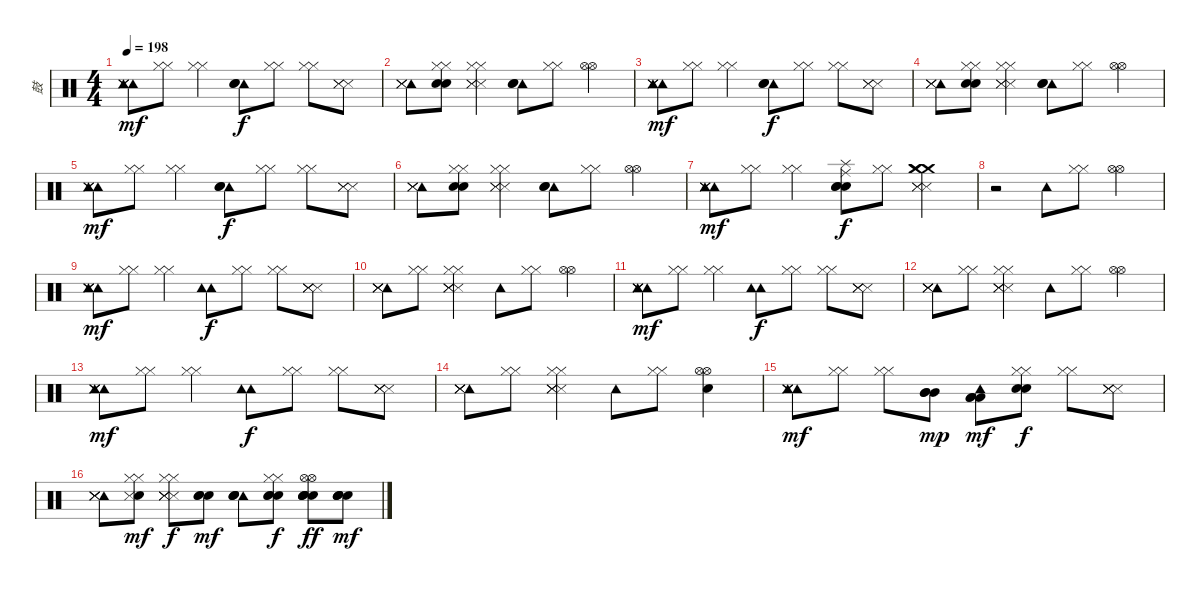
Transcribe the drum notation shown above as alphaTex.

\track ("鼓" "鼓") {instrument percussion}
\staff {score}
\articulation defaults
\ts (4 4)
\tempo 198
\clef neutral
\ks c
("Tambourine (hit)" "Tambourine (hit)" "Metronome (hit)" "Metronome (hit)" "Metronome (hit)").8{dy mf} ("Hi-Hat (closed)" "Hi-Hat (closed)").8 ("Hi-Hat (closed)" "Hi-Hat (closed)").4 ("Tambourine (hit)" "Metronome (bell)" "Metronome (bell)").8{dy f} ("Hi-Hat (closed)" "Hi-Hat (closed)").8 ("Hi-Hat (closed)" "Hi-Hat (closed)").8 ("Metronome (hit)" "Metronome (hit)" "Metronome (hit)").8 |
("Tambourine (hit)" "Metronome (hit)" "Metronome (hit)" "Metronome (hit)").8 ("Hi-Hat (closed)" "Hi-Hat (closed)" "Metronome (bell)" "Metronome (bell)").8 ("Hi-Hat (closed)" "Hi-Hat (closed)" "Metronome (hit)" "Metronome (hit)" "Metronome (hit)").4 ("Tambourine (hit)" "Metronome (bell)" "Metronome (bell)").8 ("Hi-Hat (closed)" "Hi-Hat (closed)").8 ("Hi-Hat (open)" "Hi-Hat (open)").4 |
("Tambourine (hit)" "Tambourine (hit)" "Metronome (hit)" "Metronome (hit)" "Metronome (hit)").8{dy mf} ("Hi-Hat (closed)" "Hi-Hat (closed)").8 ("Hi-Hat (closed)" "Hi-Hat (closed)").4 ("Tambourine (hit)" "Metronome (bell)" "Metronome (bell)").8{dy f} ("Hi-Hat (closed)" "Hi-Hat (closed)").8 ("Hi-Hat (closed)" "Hi-Hat (closed)").8 ("Metronome (hit)" "Metronome (hit)" "Metronome (hit)").8 |
("Tambourine (hit)" "Metronome (hit)" "Metronome (hit)" "Metronome (hit)").8 ("Hi-Hat (closed)" "Hi-Hat (closed)" "Metronome (bell)" "Metronome (bell)").8 ("Hi-Hat (closed)" "Hi-Hat (closed)" "Metronome (hit)" "Metronome (hit)" "Metronome (hit)").4 ("Tambourine (hit)" "Metronome (bell)" "Metronome (bell)").8 ("Hi-Hat (closed)" "Hi-Hat (closed)").8 ("Hi-Hat (open)" "Hi-Hat (open)").4 |
("Tambourine (hit)" "Tambourine (hit)" "Metronome (hit)" "Metronome (hit)" "Metronome (hit)").8{dy mf} ("Hi-Hat (closed)" "Hi-Hat (closed)").8 ("Hi-Hat (closed)" "Hi-Hat (closed)").4 ("Tambourine (hit)" "Metronome (bell)" "Metronome (bell)").8{dy f} ("Hi-Hat (closed)" "Hi-Hat (closed)").8 ("Hi-Hat (closed)" "Hi-Hat (closed)").8 ("Metronome (hit)" "Metronome (hit)" "Metronome (hit)").8 |
("Tambourine (hit)" "Metronome (hit)" "Metronome (hit)" "Metronome (hit)").8 ("Hi-Hat (closed)" "Hi-Hat (closed)" "Metronome (bell)" "Metronome (bell)").8 ("Hi-Hat (closed)" "Hi-Hat (closed)" "Metronome (hit)" "Metronome (hit)" "Metronome (hit)").4 ("Tambourine (hit)" "Metronome (bell)" "Metronome (bell)").8 ("Hi-Hat (closed)" "Hi-Hat (closed)").8 ("Hi-Hat (open)" "Hi-Hat (open)").4 |
("Tambourine (hit)" "Tambourine (hit)" "Metronome (hit)" "Metronome (hit)" "Metronome (hit)").8{dy mf} ("Hi-Hat (closed)" "Hi-Hat (closed)").8 ("Hi-Hat (closed)" "Hi-Hat (closed)").4 ("Ride (middle)" "Splash (hit)" "Metronome (bell)" "Metronome (bell)" "Metronome (bell)").8{dy f} ("Hi-Hat (closed)" "Hi-Hat (closed)").8 ("Crash medium (hit)" "Metronome (hit)" "Metronome (hit)" "Metronome (hit)" "Crash medium (hit)" "Crash medium (hit)").4 |
r.2 "Tambourine (hit)".8 ("Hi-Hat (closed)" "Hi-Hat (closed)").8 ("Hi-Hat (open)" "Hi-Hat (open)").4 |
("Tambourine (hit)" "Tambourine (hit)" "Metronome (hit)" "Metronome (hit)" "Metronome (hit)" "Metronome (hit)").8{dy mf} ("Hi-Hat (closed)" "Hi-Hat (closed)").8 ("Hi-Hat (closed)" "Hi-Hat (closed)").4 ("Tambourine (hit)" "Tambourine (hit)").8{dy f} ("Hi-Hat (closed)" "Hi-Hat (closed)").8 ("Hi-Hat (closed)" "Hi-Hat (closed)").8 ("Metronome (hit)" "Metronome (hit)" "Metronome (hit)" "Metronome (hit)").8 |
("Tambourine (hit)" "Metronome (hit)" "Metronome (hit)" "Metronome (hit)" "Metronome (hit)").8 ("Hi-Hat (closed)" "Hi-Hat (closed)").8 ("Hi-Hat (closed)" "Hi-Hat (closed)" "Metronome (hit)" "Metronome (hit)" "Metronome (hit)" "Metronome (hit)").4 "Tambourine (hit)".8 ("Hi-Hat (closed)" "Hi-Hat (closed)").8 ("Hi-Hat (open)" "Hi-Hat (open)").4 |
("Tambourine (hit)" "Tambourine (hit)" "Metronome (hit)" "Metronome (hit)" "Metronome (hit)" "Metronome (hit)").8{dy mf} ("Hi-Hat (closed)" "Hi-Hat (closed)").8 ("Hi-Hat (closed)" "Hi-Hat (closed)").4 ("Tambourine (hit)" "Tambourine (hit)").8{dy f} ("Hi-Hat (closed)" "Hi-Hat (closed)").8 ("Hi-Hat (closed)" "Hi-Hat (closed)").8 ("Metronome (hit)" "Metronome (hit)" "Metronome (hit)" "Metronome (hit)").8 |
("Tambourine (hit)" "Metronome (hit)" "Metronome (hit)" "Metronome (hit)" "Metronome (hit)").8 ("Hi-Hat (closed)" "Hi-Hat (closed)").8 ("Hi-Hat (closed)" "Hi-Hat (closed)" "Metronome (hit)" "Metronome (hit)" "Metronome (hit)" "Metronome (hit)").4 "Tambourine (hit)".8 ("Hi-Hat (closed)" "Hi-Hat (closed)").8 ("Hi-Hat (open)" "Hi-Hat (open)").4 |
("Tambourine (hit)" "Tambourine (hit)" "Metronome (hit)" "Metronome (hit)" "Metronome (hit)" "Metronome (hit)").8{dy mf} ("Hi-Hat (closed)" "Hi-Hat (closed)").8 ("Hi-Hat (closed)" "Hi-Hat (closed)").4 ("Tambourine (hit)" "Tambourine (hit)").8{dy f} ("Hi-Hat (closed)" "Hi-Hat (closed)").8 ("Hi-Hat (closed)" "Hi-Hat (closed)").8 ("Metronome (hit)" "Metronome (hit)" "Metronome (hit)" "Metronome (hit)").8 |
("Tambourine (hit)" "Metronome (hit)" "Metronome (hit)" "Metronome (hit)" "Metronome (hit)").8 ("Hi-Hat (closed)" "Hi-Hat (closed)").8 ("Hi-Hat (closed)" "Hi-Hat (closed)" "Metronome (hit)" "Metronome (hit)" "Metronome (hit)" "Metronome (hit)").4 "Tambourine (hit)".8 ("Hi-Hat (closed)" "Hi-Hat (closed)").8 ("Hi-Hat (open)" "Hi-Hat (open)" "Metronome (bell)").4 |
("Tambourine (hit)" "Tambourine (hit)" "Metronome (hit)" "Metronome (hit)" "Metronome (hit)" "Metronome (hit)").8{dy mf} ("Hi-Hat (closed)" "Hi-Hat (closed)").8 ("Hi-Hat (closed)" "Hi-Hat (closed)").8 ("Mid Tom (hit)" "Mid Tom (hit)" "Mid Tom (hit)").8{dy mp} ("Tambourine (hit)" "Low Tom (hit)" "Low Tom (hit)" "Low Tom (hit)").8{dy mf} ("Hi-Hat (closed)" "Hi-Hat (closed)" "Metronome (bell)" "Metronome (bell)").8{dy f} ("Hi-Hat (closed)" "Hi-Hat (closed)").8 ("Metronome (hit)" "Metronome (hit)" "Metronome (hit)" "Metronome (hit)").8 |
("Tambourine (hit)" "Metronome (hit)" "Metronome (hit)" "Metronome (hit)" "Metronome (hit)").8 ("Hi-Hat (closed)" "Hi-Hat (closed)" "Metronome (bell)" "Metronome (hit)").8{dy mf} ("Hi-Hat (closed)" "Hi-Hat (closed)" "Metronome (hit)" "Metronome (hit)" "Metronome (hit)" "Metronome (hit)").8{dy f} ("Metronome (bell)" "Metronome (bell)" "Metronome (bell)").8{dy mf} ("Tambourine (hit)" "Metronome (bell)" "Metronome (bell)" "Metronome (bell)").8 ("Hi-Hat (closed)" "Hi-Hat (closed)" "Metronome (bell)" "Metronome (bell)" "Metronome (bell)").8{dy f} ("Hi-Hat (open)" "Hi-Hat (open)" "Metronome (bell)" "Metronome (bell)" "Metronome (bell)" "Metronome (bell)").8{dy ff} ("Metronome (bell)" "Metronome (bell)" "Metronome (bell)" "Metronome (bell)").8{dy mf}
